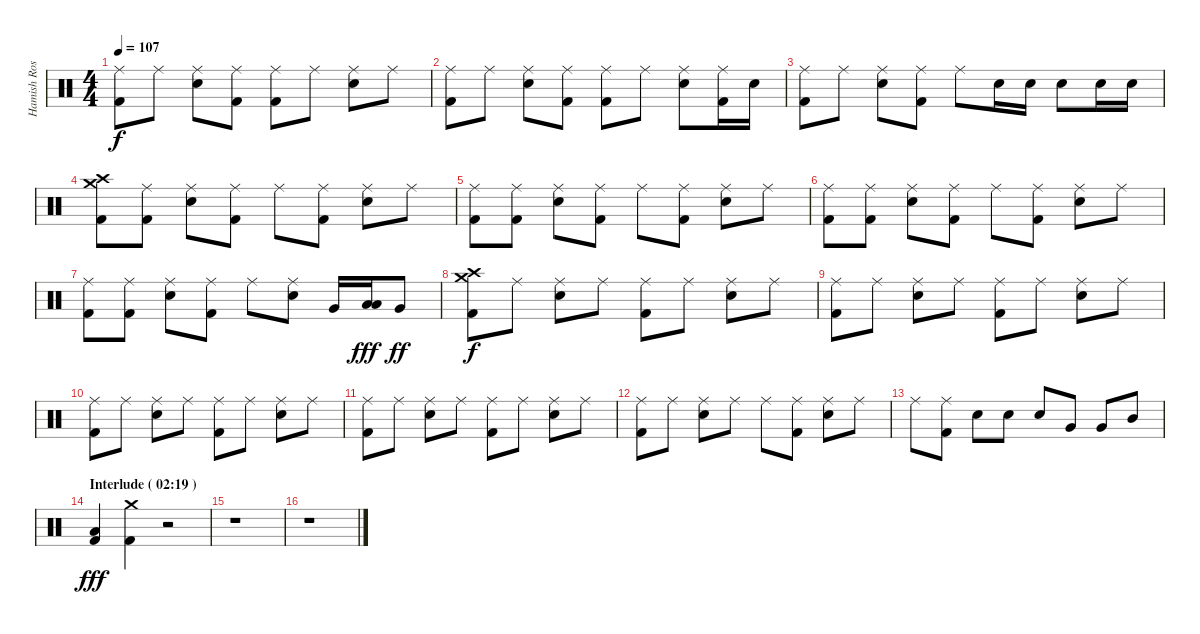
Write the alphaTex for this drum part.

\track ("Hamish Rosser" "Hamish Ros") {instrument percussion}
\staff {score}
\articulation defaults
\ts (4 4)
\tempo 107
\clef neutral
\ks c
("Ride (middle)" "Kick (hit) 2").8{dy f} "Ride (middle)".8 ("Ride (middle)" "Electric Snare (hit)").8 ("Ride (middle)" "Kick (hit) 2").8 ("Ride (middle)" "Kick (hit) 2").8 "Ride (middle)".8 ("Ride (middle)" "Electric Snare (hit)").8 "Ride (middle)".8 |
("Ride (middle)" "Kick (hit) 2").8 "Ride (middle)".8 ("Ride (middle)" "Electric Snare (hit)").8 ("Ride (middle)" "Kick (hit) 2").8 ("Ride (middle)" "Kick (hit) 2").8 "Ride (middle)".8 ("Ride (middle)" "Electric Snare (hit)").8 ("Ride (middle)" "Kick (hit) 2").16 "Electric Snare (hit)".16 |
("Ride (middle)" "Kick (hit) 2").8 "Ride (middle)".8 ("Ride (middle)" "Electric Snare (hit)").8 ("Ride (middle)" "Kick (hit) 2").8 "Ride (middle)".8 "Electric Snare (hit)".16 "Electric Snare (hit)".16 "Electric Snare (hit)".8 "Electric Snare (hit)".16 "Electric Snare (hit)".16 |
("Crash medium (hit)" "Crash high (hit)" "Kick (hit) 2").8 ("Ride (middle)" "Kick (hit) 2").8 ("Ride (middle)" "Electric Snare (hit)").8 ("Ride (middle)" "Kick (hit) 2").8 "Ride (middle)".8 ("Ride (middle)" "Kick (hit) 2").8 ("Ride (middle)" "Electric Snare (hit)").8 "Ride (middle)".8 |
("Ride (middle)" "Kick (hit) 2").8 ("Ride (middle)" "Kick (hit) 2").8 ("Ride (middle)" "Electric Snare (hit)").8 ("Ride (middle)" "Kick (hit) 2").8 "Ride (middle)".8 ("Ride (middle)" "Kick (hit) 2").8 ("Ride (middle)" "Electric Snare (hit)").8 "Ride (middle)".8 |
("Ride (middle)" "Kick (hit) 2").8 ("Ride (middle)" "Kick (hit) 2").8 ("Ride (middle)" "Electric Snare (hit)").8 ("Ride (middle)" "Kick (hit) 2").8 "Ride (middle)".8 ("Ride (middle)" "Kick (hit) 2").8 ("Ride (middle)" "Electric Snare (hit)").8 "Ride (middle)".8 |
("Ride (middle)" "Kick (hit) 2").8 ("Ride (middle)" "Kick (hit) 2").8 ("Ride (middle)" "Electric Snare (hit)").8 ("Ride (middle)" "Kick (hit) 2").8 "Ride (middle)".8 ("Ride (middle)" "Electric Snare (hit)").8 "Very Low Tom (hit)".16 ("Low Tom (hit)" "Low Tom (hit)").16{dy fff} "Very Low Tom (hit)".8{dy ff} |
("Crash medium (hit)" "Crash high (hit)" "Kick (hit) 2").8{dy f} "Ride (middle)".8 ("Ride (middle)" "Electric Snare (hit)").8 "Ride (middle)".8 ("Ride (middle)" "Kick (hit) 2").8 "Ride (middle)".8 ("Ride (middle)" "Electric Snare (hit)").8 "Ride (middle)".8 |
("Ride (middle)" "Kick (hit) 2").8 "Ride (middle)".8 ("Ride (middle)" "Electric Snare (hit)").8 "Ride (middle)".8 ("Ride (middle)" "Kick (hit) 2").8 "Ride (middle)".8 ("Ride (middle)" "Electric Snare (hit)").8 "Ride (middle)".8 |
("Ride (middle)" "Kick (hit) 2").8 "Ride (middle)".8 ("Ride (middle)" "Electric Snare (hit)").8 "Ride (middle)".8 ("Ride (middle)" "Kick (hit) 2").8 "Ride (middle)".8 ("Ride (middle)" "Electric Snare (hit)").8 "Ride (middle)".8 |
("Ride (middle)" "Kick (hit) 2").8 "Ride (middle)".8 ("Ride (middle)" "Electric Snare (hit)").8 "Ride (middle)".8 ("Ride (middle)" "Kick (hit) 2").8 "Ride (middle)".8 ("Ride (middle)" "Electric Snare (hit)").8 "Ride (middle)".8 |
("Ride (middle)" "Kick (hit) 2").8 "Ride (middle)".8 ("Ride (middle)" "Electric Snare (hit)").8 "Ride (middle)".8 "Ride (middle)".8 ("Ride (middle)" "Kick (hit) 2").8 ("Ride (middle)" "Electric Snare (hit)").8 "Ride (middle)".8 |
"Ride (middle)".8 ("Ride (middle)" "Kick (hit) 2").8 "Electric Snare (hit)".8 "Electric Snare (hit)".8 "Electric Snare (hit)".8 "Very Low Tom (hit)".8 "Very Low Tom (hit)".8 "Mid Tom (hit)".8 |
\section ("" "Interlude ( 02:19 )")
("Low Tom (hit)" "Kick (hit) 2").4{dy fff} ("Crash medium (hit)" "Kick (hit) 2").4 r.2 |
r.1 |
r.1
